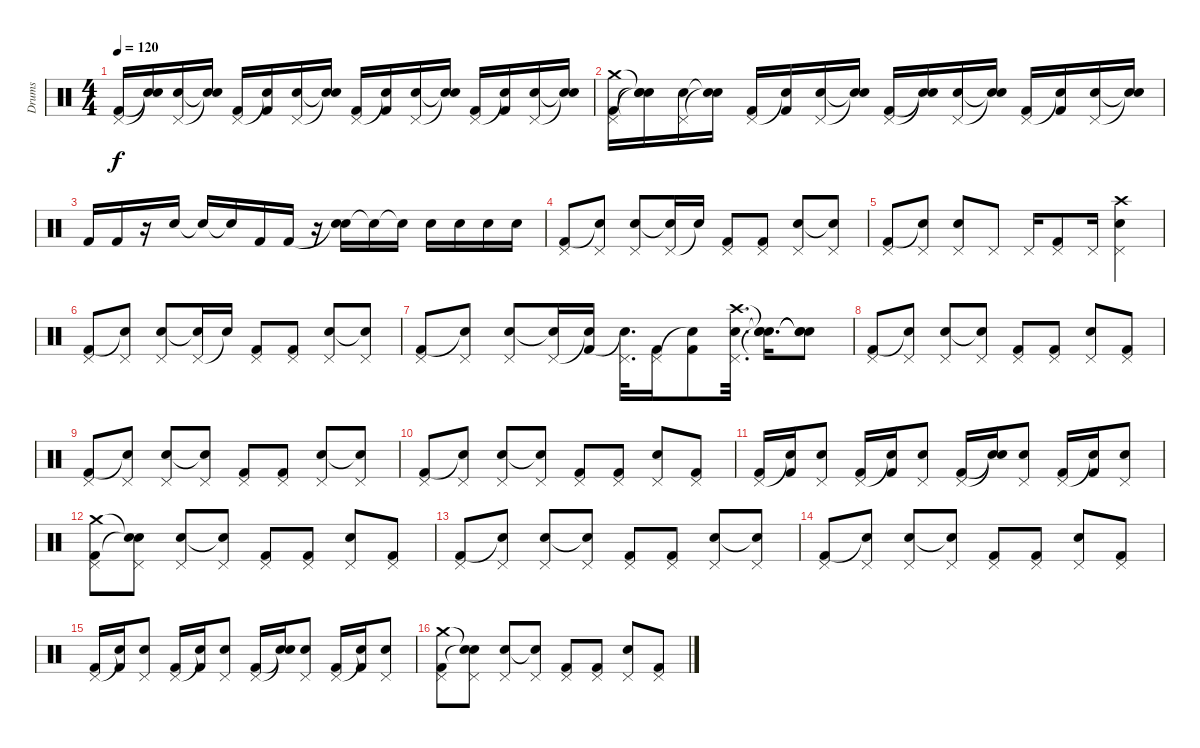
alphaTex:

\track ("Drums" "Drums") {instrument percussion}
\staff {score}
\articulation defaults
\ts (4 4)
\tempo 120
\clef neutral
\ks c
("Pedal Hi-Hat (hit)" "Kick (hit) 2").16{dy f} ("Snare (hit)"{t} "Snare (hit)"{t}).16 ("Pedal Hi-Hat (hit)" "Snare (hit) 2").16 ("Snare (hit)"{t} "Snare (hit)"{t}).16 ("Pedal Hi-Hat (hit)" "Kick (hit) 2").16 ("Snare (hit)"{t} "Kick (hit) 2").16 ("Pedal Hi-Hat (hit)" "Snare (hit) 2").16 ("Snare (hit)"{t} "Snare (hit)"{t}).16 ("Pedal Hi-Hat (hit)" "Kick (hit) 2").16 ("Snare (hit)"{t} "Kick (hit) 2").16 ("Pedal Hi-Hat (hit)" "Snare (hit) 2").16 ("Snare (hit)"{t} "Snare (hit)"{t}).16 ("Pedal Hi-Hat (hit)" "Kick (hit) 2").16 ("Snare (hit)"{t} "Kick (hit) 2").16 ("Pedal Hi-Hat (hit)" "Snare (hit) 2").16 ("Snare (hit)"{t} "Snare (hit)"{t}).16 |
("Pedal Hi-Hat (hit)" "Crash medium (hit)" "Kick (hit) 2").16 ("Snare (hit)"{t} "Snare (hit)"{t} "Snare (hit)"{t}).16 ("Pedal Hi-Hat (hit)" "Snare (hit) 2").16 ("Snare (hit)"{t} "Snare (hit)"{t}).16 ("Pedal Hi-Hat (hit)" "Kick (hit) 2").16 ("Snare (hit)"{t} "Kick (hit) 2").16 ("Pedal Hi-Hat (hit)" "Snare (hit) 2").16 ("Snare (hit)"{t} "Snare (hit)"{t}).16 ("Pedal Hi-Hat (hit)" "Kick (hit) 2").16 ("Snare (hit)"{t} "Snare (hit)"{t}).16 ("Pedal Hi-Hat (hit)" "Snare (hit) 2").16 ("Snare (hit)"{t} "Snare (hit)"{t}).16 ("Pedal Hi-Hat (hit)" "Kick (hit) 2").16 ("Snare (hit)"{t} "Kick (hit) 2").16 ("Pedal Hi-Hat (hit)" "Snare (hit) 2").16 ("Snare (hit)"{t} "Snare (hit)"{t}).16 |
"Kick (hit) 2".16 "Kick (hit) 2".16 r.16 "Snare (hit) 2".16 "Snare (hit)"{t}.16 "Snare (hit)"{t}.16 "Kick (hit) 2".16 "Kick (hit) 2".16 r.16 ("Snare (hit)"{t} "Snare (hit) 2").16 "Snare (hit)"{t}.16 "Snare (hit)"{t}.16 "Snare (hit) 2".16 "Snare (hit) 2".16 "Snare (hit) 2".16 "Snare (hit) 2".16 |
("Pedal Hi-Hat (hit)" "Kick (hit) 2").8 ("Pedal Hi-Hat (hit)" "Snare (hit)"{t}).8 ("Pedal Hi-Hat (hit)" "Snare (hit) 2").8 ("Pedal Hi-Hat (hit)" "Snare (hit)"{t}).16 "Snare (hit)"{t}.16 ("Pedal Hi-Hat (hit)" "Kick (hit) 2").8 ("Pedal Hi-Hat (hit)" "Kick (hit) 2").8 ("Pedal Hi-Hat (hit)" "Snare (hit) 2").8 ("Pedal Hi-Hat (hit)" "Snare (hit)"{t}).8 |
("Pedal Hi-Hat (hit)" "Kick (hit) 2").8 ("Pedal Hi-Hat (hit)" "Snare (hit)"{t}).8 ("Pedal Hi-Hat (hit)" "Snare (hit) 2").8 "Pedal Hi-Hat (hit)".8 "Pedal Hi-Hat (hit)".16 ("Pedal Hi-Hat (hit)" "Kick (hit) 2").8 "Pedal Hi-Hat (hit)".16 ("Pedal Hi-Hat (hit)" "Crash high (hit)" "Snare (hit) 2").4 |
("Pedal Hi-Hat (hit)" "Kick (hit) 2").8 ("Pedal Hi-Hat (hit)" "Snare (hit)"{t}).8 ("Pedal Hi-Hat (hit)" "Snare (hit) 2").8 ("Pedal Hi-Hat (hit)" "Snare (hit)"{t}).16 "Snare (hit)"{t}.16 ("Pedal Hi-Hat (hit)" "Kick (hit) 2").8 ("Pedal Hi-Hat (hit)" "Kick (hit) 2").8 ("Pedal Hi-Hat (hit)" "Snare (hit) 2").8 ("Pedal Hi-Hat (hit)" "Snare (hit)"{t}).8 |
("Pedal Hi-Hat (hit)" "Kick (hit) 2").8 ("Pedal Hi-Hat (hit)" "Snare (hit)"{t}).8 ("Pedal Hi-Hat (hit)" "Snare (hit) 2").8 ("Pedal Hi-Hat (hit)" "Snare (hit)"{t}).16 ("Snare (hit)"{t} "Kick (hit) 2").16 ("Pedal Hi-Hat (hit)" "Snare (hit)"{t}).32{d} ("Pedal Hi-Hat (hit)" "Kick (hit) 2").16 ("Snare (hit)"{t} "Kick (hit) 2").8 ("Pedal Hi-Hat (hit)" "Crash high (hit)" "Snare (hit) 2").32{d} ("Snare (hit)"{t} "Snare (hit)"{t} "Snare (hit)"{t}).16{d} ("Snare (hit)"{t} "Snare (hit)"{t} "Snare (hit)"{t}).8 |
("Pedal Hi-Hat (hit)" "Kick (hit) 2").8 ("Pedal Hi-Hat (hit)" "Snare (hit)"{t}).8 ("Pedal Hi-Hat (hit)" "Snare (hit) 2").8 ("Pedal Hi-Hat (hit)" "Snare (hit)"{t}).8 ("Pedal Hi-Hat (hit)" "Kick (hit) 2").8 ("Pedal Hi-Hat (hit)" "Kick (hit) 2").8 ("Pedal Hi-Hat (hit)" "Snare (hit) 2").8 ("Pedal Hi-Hat (hit)" "Kick (hit) 2").8 |
("Pedal Hi-Hat (hit)" "Kick (hit) 2").8 ("Pedal Hi-Hat (hit)" "Snare (hit)"{t}).8 ("Pedal Hi-Hat (hit)" "Snare (hit) 2").8 ("Pedal Hi-Hat (hit)" "Snare (hit)"{t}).8 ("Pedal Hi-Hat (hit)" "Kick (hit) 2").8 ("Pedal Hi-Hat (hit)" "Kick (hit) 2").8 ("Pedal Hi-Hat (hit)" "Snare (hit) 2").8 ("Pedal Hi-Hat (hit)" "Snare (hit)"{t}).8 |
("Pedal Hi-Hat (hit)" "Kick (hit) 2").8 ("Pedal Hi-Hat (hit)" "Snare (hit)"{t}).8 ("Pedal Hi-Hat (hit)" "Snare (hit) 2").8 ("Pedal Hi-Hat (hit)" "Snare (hit)"{t}).8 ("Pedal Hi-Hat (hit)" "Kick (hit) 2").8 ("Pedal Hi-Hat (hit)" "Kick (hit) 2").8 ("Pedal Hi-Hat (hit)" "Snare (hit) 2").8 ("Pedal Hi-Hat (hit)" "Kick (hit) 2").8 |
("Pedal Hi-Hat (hit)" "Kick (hit) 2").16 ("Snare (hit)"{t} "Kick (hit) 2").16 ("Pedal Hi-Hat (hit)" "Snare (hit) 2").8 ("Pedal Hi-Hat (hit)" "Kick (hit) 2").16 ("Snare (hit)"{t} "Kick (hit) 2").16 ("Pedal Hi-Hat (hit)" "Snare (hit) 2").8 ("Pedal Hi-Hat (hit)" "Kick (hit) 2").16 ("Snare (hit)"{t} "Snare (hit)"{t}).16 ("Pedal Hi-Hat (hit)" "Snare (hit) 2").8 ("Pedal Hi-Hat (hit)" "Kick (hit) 2").16 ("Snare (hit)"{t} "Kick (hit) 2").16 ("Pedal Hi-Hat (hit)" "Snare (hit) 2").8 |
("Pedal Hi-Hat (hit)" "Crash medium (hit)" "Kick (hit) 2").8 ("Pedal Hi-Hat (hit)" "Snare (hit)"{t} "Snare (hit)"{t}).8 ("Pedal Hi-Hat (hit)" "Snare (hit) 2").8 ("Pedal Hi-Hat (hit)" "Snare (hit)"{t}).8 ("Pedal Hi-Hat (hit)" "Kick (hit) 2").8 ("Pedal Hi-Hat (hit)" "Kick (hit) 2").8 ("Pedal Hi-Hat (hit)" "Snare (hit) 2").8 ("Pedal Hi-Hat (hit)" "Kick (hit) 2").8 |
("Pedal Hi-Hat (hit)" "Kick (hit) 2").8 ("Pedal Hi-Hat (hit)" "Snare (hit)"{t}).8 ("Pedal Hi-Hat (hit)" "Snare (hit) 2").8 ("Pedal Hi-Hat (hit)" "Snare (hit)"{t}).8 ("Pedal Hi-Hat (hit)" "Kick (hit) 2").8 ("Pedal Hi-Hat (hit)" "Kick (hit) 2").8 ("Pedal Hi-Hat (hit)" "Snare (hit) 2").8 ("Pedal Hi-Hat (hit)" "Snare (hit)"{t}).8 |
("Pedal Hi-Hat (hit)" "Kick (hit) 2").8 ("Pedal Hi-Hat (hit)" "Snare (hit)"{t}).8 ("Pedal Hi-Hat (hit)" "Snare (hit) 2").8 ("Pedal Hi-Hat (hit)" "Snare (hit)"{t}).8 ("Pedal Hi-Hat (hit)" "Kick (hit) 2").8 ("Pedal Hi-Hat (hit)" "Kick (hit) 2").8 ("Pedal Hi-Hat (hit)" "Snare (hit) 2").8 ("Pedal Hi-Hat (hit)" "Kick (hit) 2").8 |
("Pedal Hi-Hat (hit)" "Kick (hit) 2").16 ("Snare (hit)"{t} "Kick (hit) 2").16 ("Pedal Hi-Hat (hit)" "Snare (hit) 2").8 ("Pedal Hi-Hat (hit)" "Kick (hit) 2").16 ("Snare (hit)"{t} "Kick (hit) 2").16 ("Pedal Hi-Hat (hit)" "Snare (hit) 2").8 ("Pedal Hi-Hat (hit)" "Kick (hit) 2").16 ("Snare (hit)"{t} "Snare (hit)"{t}).16 ("Pedal Hi-Hat (hit)" "Snare (hit) 2").8 ("Pedal Hi-Hat (hit)" "Kick (hit) 2").16 ("Snare (hit)"{t} "Kick (hit) 2").16 ("Pedal Hi-Hat (hit)" "Snare (hit) 2").8 |
("Pedal Hi-Hat (hit)" "Crash medium (hit)" "Kick (hit) 2").8 ("Pedal Hi-Hat (hit)" "Snare (hit)"{t} "Snare (hit)"{t}).8 ("Pedal Hi-Hat (hit)" "Snare (hit) 2").8 ("Pedal Hi-Hat (hit)" "Snare (hit)"{t}).8 ("Pedal Hi-Hat (hit)" "Kick (hit) 2").8 ("Pedal Hi-Hat (hit)" "Kick (hit) 2").8 ("Pedal Hi-Hat (hit)" "Snare (hit) 2").8 ("Pedal Hi-Hat (hit)" "Kick (hit) 2").8
